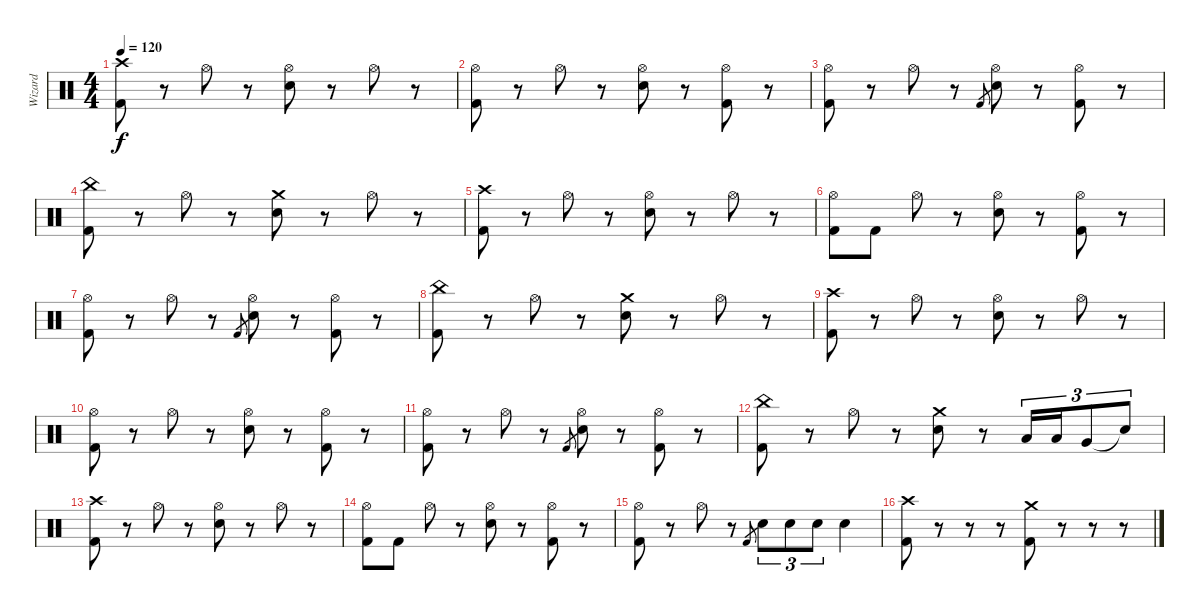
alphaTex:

\track ("Wizard" "Wizard") {instrument percussion}
\staff {score}
\articulation defaults
\ts (4 4)
\tempo 120
\clef neutral
\ks c
("Crash high (hit)" "Kick (hit) 2").8{dy f} r.8 "Hi-Hat (open)".8 r.8 ("Hi-Hat (open)" "Snare (hit) 2").8 r.8 "Hi-Hat (open)".8 r.8 |
("Hi-Hat (open)" "Kick (hit) 2").8 r.8 "Hi-Hat (open)".8 r.8 ("Hi-Hat (open)" "Snare (hit) 2").8 r.8 ("Hi-Hat (open)" "Kick (hit) 2").8 r.8 |
("Hi-Hat (open)" "Kick (hit) 2").8 r.8 "Hi-Hat (open)".8 r.8 "Kick (hit) 2".8{gr} ("Hi-Hat (open)" "Snare (hit) 2").8 r.8 ("Hi-Hat (open)" "Kick (hit) 2").8 r.8 |
("China (hit)" "Kick (hit) 2").8 r.8 "Hi-Hat (open)".8 r.8 ("Crash medium (hit)" "Snare (hit) 2").8 r.8 "Hi-Hat (open)".8 r.8 |
("Crash high (hit)" "Kick (hit) 2").8 r.8 "Hi-Hat (open)".8 r.8 ("Hi-Hat (open)" "Snare (hit) 2").8 r.8 "Hi-Hat (open)".8 r.8 |
("Hi-Hat (open)" "Kick (hit) 2").8 "Kick (hit) 2".8 "Hi-Hat (open)".8 r.8 ("Hi-Hat (open)" "Snare (hit) 2").8 r.8 ("Hi-Hat (open)" "Kick (hit) 2").8 r.8 |
("Hi-Hat (open)" "Kick (hit) 2").8 r.8 "Hi-Hat (open)".8 r.8 "Kick (hit) 2".8{gr} ("Hi-Hat (open)" "Snare (hit) 2").8 r.8 ("Hi-Hat (open)" "Kick (hit) 2").8 r.8 |
("China (hit)" "Kick (hit) 2").8 r.8 "Hi-Hat (open)".8 r.8 ("Crash medium (hit)" "Snare (hit) 2").8 r.8 "Hi-Hat (open)".8 r.8 |
("Crash high (hit)" "Kick (hit) 2").8 r.8 "Hi-Hat (open)".8 r.8 ("Hi-Hat (open)" "Snare (hit) 2").8 r.8 "Hi-Hat (open)".8 r.8 |
("Hi-Hat (open)" "Kick (hit) 2").8 r.8 "Hi-Hat (open)".8 r.8 ("Hi-Hat (open)" "Snare (hit) 2").8 r.8 ("Hi-Hat (open)" "Kick (hit) 2").8 r.8 |
("Hi-Hat (open)" "Kick (hit) 2").8 r.8 "Hi-Hat (open)".8 r.8 "Kick (hit) 2".8{gr} ("Hi-Hat (open)" "Snare (hit) 2").8 r.8 ("Hi-Hat (open)" "Kick (hit) 2").8 r.8 |
("China (hit)" "Kick (hit) 2").8 r.8 "Hi-Hat (open)".8 r.8 ("Crash medium (hit)" "Snare (hit) 2").8 r.8 "Low Tom (hit)".16{tu (3 2)} "Low Tom (hit)".16{tu (3 2)} "Very Low Tom (hit)".8{tu (3 2)} "Snare (hit)"{t}.8{tu (3 2)} |
("Crash high (hit)" "Kick (hit) 2").8 r.8 "Hi-Hat (open)".8 r.8 ("Hi-Hat (open)" "Snare (hit) 2").8 r.8 "Hi-Hat (open)".8 r.8 |
("Hi-Hat (open)" "Kick (hit) 2").8 "Kick (hit) 2".8 "Hi-Hat (open)".8 r.8 ("Hi-Hat (open)" "Snare (hit) 2").8 r.8 ("Hi-Hat (open)" "Kick (hit) 2").8 r.8 |
("Hi-Hat (open)" "Kick (hit) 2").8 r.8 "Hi-Hat (open)".8 r.8 "Kick (hit) 2".8{gr} "Snare (hit) 2".8{tu (3 2)} "Snare (hit) 2".8{tu (3 2)} "Snare (hit) 2".8{tu (3 2)} "Snare (hit) 2".4 |
("Crash high (hit)" "Kick (hit) 2").8 r.8 r.8 r.8 ("Crash medium (hit)" "Kick (hit) 2").8 r.8 r.8 r.8
